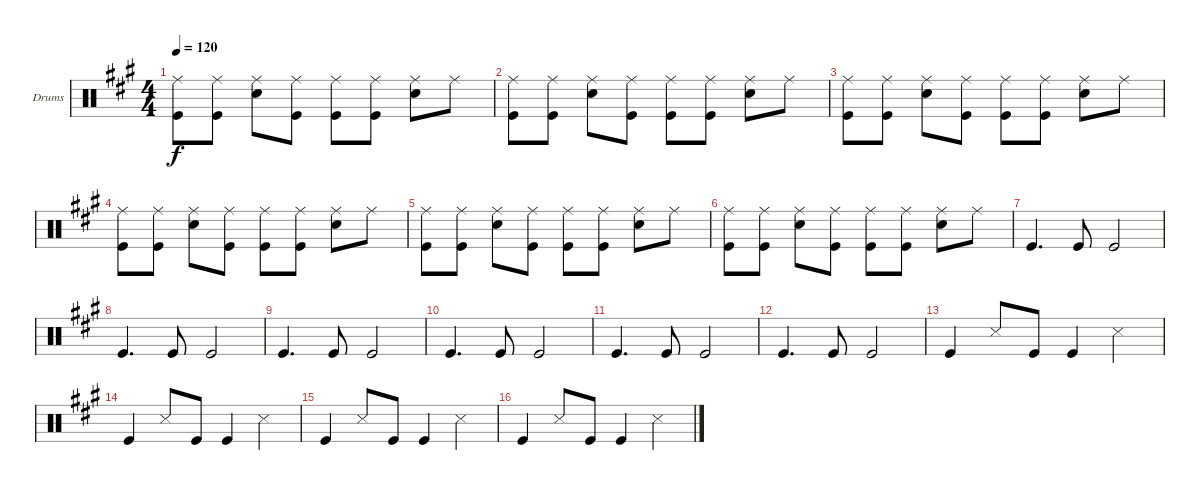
\bracketExtendMode groupsimilarinstruments
\firstSystemTrackNameOrientation horizontal
\otherSystemsTrackNameOrientation horizontal
\track ("Drums Ringo" "Drums") {instrument percussion}
\staff {score}
\articulation defaults
\ts (4 4)
\tempo 120
\clef neutral
\ks a
("Ride (middle)" "Kick (hit)").8{dy f} ("Ride (middle)" "Kick (hit)").8 ("Ride (middle)" "Snare (hit) 2").8 ("Ride (middle)" "Kick (hit)").8 ("Ride (middle)" "Kick (hit)").8 ("Ride (middle)" "Kick (hit)").8 ("Ride (middle)" "Snare (hit) 2").8 "Ride (middle)".8 |
("Ride (middle)" "Kick (hit)").8 ("Ride (middle)" "Kick (hit)").8 ("Ride (middle)" "Snare (hit) 2").8 ("Ride (middle)" "Kick (hit)").8 ("Ride (middle)" "Kick (hit)").8 ("Ride (middle)" "Kick (hit)").8 ("Ride (middle)" "Snare (hit) 2").8 "Ride (middle)".8 |
("Ride (middle)" "Kick (hit)").8 ("Ride (middle)" "Kick (hit)").8 ("Ride (middle)" "Snare (hit) 2").8 ("Ride (middle)" "Kick (hit)").8 ("Ride (middle)" "Kick (hit)").8 ("Ride (middle)" "Kick (hit)").8 ("Ride (middle)" "Snare (hit) 2").8 "Ride (middle)".8 |
("Ride (middle)" "Kick (hit)").8 ("Ride (middle)" "Kick (hit)").8 ("Ride (middle)" "Snare (hit) 2").8 ("Ride (middle)" "Kick (hit)").8 ("Ride (middle)" "Kick (hit)").8 ("Ride (middle)" "Kick (hit)").8 ("Ride (middle)" "Snare (hit) 2").8 "Ride (middle)".8 |
("Ride (middle)" "Kick (hit)").8 ("Ride (middle)" "Kick (hit)").8 ("Ride (middle)" "Snare (hit) 2").8 ("Ride (middle)" "Kick (hit)").8 ("Ride (middle)" "Kick (hit)").8 ("Ride (middle)" "Kick (hit)").8 ("Ride (middle)" "Snare (hit) 2").8 "Ride (middle)".8 |
("Ride (middle)" "Kick (hit)").8 ("Ride (middle)" "Kick (hit)").8 ("Ride (middle)" "Snare (hit) 2").8 ("Ride (middle)" "Kick (hit)").8 ("Ride (middle)" "Kick (hit)").8 ("Ride (middle)" "Kick (hit)").8 ("Ride (middle)" "Snare (hit) 2").8 "Ride (middle)".8 |
"Kick (hit)".4{d} "Kick (hit)".8 "Kick (hit)".2 |
"Kick (hit)".4{d} "Kick (hit)".8 "Kick (hit)".2 |
"Kick (hit)".4{d} "Kick (hit)".8 "Kick (hit)".2 |
"Kick (hit)".4{d} "Kick (hit)".8 "Kick (hit)".2 |
"Kick (hit)".4{d} "Kick (hit)".8 "Kick (hit)".2 |
"Kick (hit)".4{d} "Kick (hit)".8 "Kick (hit)".2 |
"Kick (hit)".4 "Snare (side stick) 3".8 "Kick (hit)".8 "Kick (hit)".4 "Snare (side stick) 3".4 |
"Kick (hit)".4 "Snare (side stick) 3".8 "Kick (hit)".8 "Kick (hit)".4 "Snare (side stick) 3".4 |
"Kick (hit)".4 "Snare (side stick) 3".8 "Kick (hit)".8 "Kick (hit)".4 "Snare (side stick) 3".4 |
"Kick (hit)".4 "Snare (side stick) 3".8 "Kick (hit)".8 "Kick (hit)".4 "Snare (side stick) 3".4
